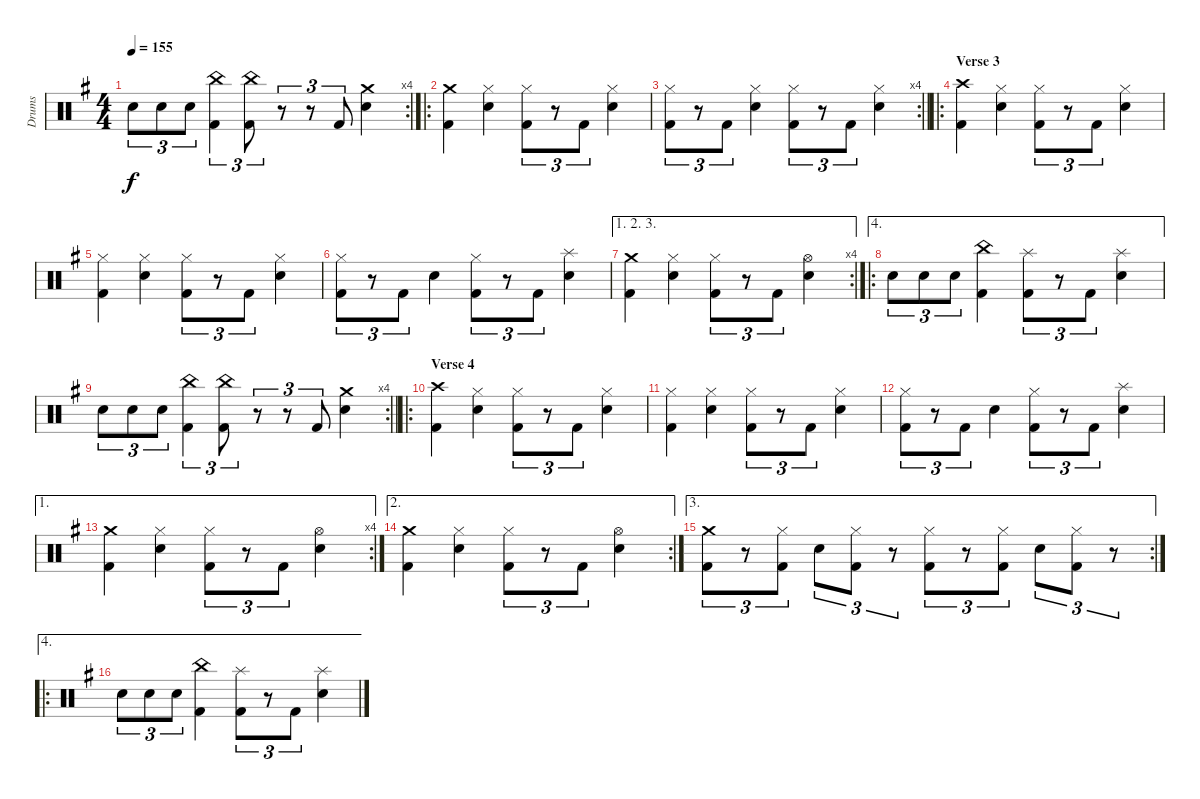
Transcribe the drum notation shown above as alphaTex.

\track ("Drums" "Drums") {instrument percussion}
\staff {score}
\articulation defaults
\rc 4
\ts (4 4)
\tempo 155
\clef neutral
\ks eminor "Electric Snare (hit)".8{tu (3 2) dy f} "Electric Snare (hit)".8{tu (3 2)} "Electric Snare (hit)".8{tu (3 2)}
("China (hit)" "Kick (hit) 2").4{tu (3 2)} ("China (hit)" "Kick (hit) 2").8{tu (3 2)} r.8{tu (3 2)} r.8{tu (3 2)} "Kick (hit) 2".8{tu (3 2)} ("Crash medium (hit)" "Electric Snare (hit)").4 |
\ro
("Crash medium (hit)" "Kick (hit) 2").4 ("Hi-Hat (closed)" "Snare (hit) 2").4 ("Hi-Hat (closed)" "Kick (hit) 2").8{tu (3 2)} r.8{tu (3 2)} "Kick (hit) 2".8{tu (3 2)} ("Hi-Hat (closed)" "Snare (hit) 2").4 |
\rc 4
\barLineRight lightlight
("Hi-Hat (closed)" "Kick (hit) 2").8{tu (3 2)} r.8{tu (3 2)} "Kick (hit) 2".8{tu (3 2)} ("Hi-Hat (closed)" "Snare (hit) 2").4 ("Hi-Hat (closed)" "Kick (hit) 2").8{tu (3 2)} r.8{tu (3 2)} "Kick (hit) 2".8{tu (3 2)} ("Hi-Hat (closed)" "Snare (hit) 2").4 |
\ro
\section ("" "Verse 3")
("Crash high (hit)" "Kick (hit) 2").4 ("Hi-Hat (closed)" "Snare (hit) 2").4 ("Hi-Hat (closed)" "Kick (hit) 2").8{tu (3 2)} r.8{tu (3 2)} "Kick (hit) 2".8{tu (3 2)} ("Hi-Hat (closed)" "Snare (hit) 2").4 |
("Hi-Hat (closed)" "Kick (hit) 2").4 ("Hi-Hat (closed)" "Snare (hit) 2").4 ("Hi-Hat (closed)" "Kick (hit) 2").8{tu (3 2)} r.8{tu (3 2)} "Kick (hit) 2".8{tu (3 2)} ("Hi-Hat (closed)" "Snare (hit) 2").4 |
("Hi-Hat (closed)" "Kick (hit) 2").8{tu (3 2)} r.8{tu (3 2)} "Kick (hit) 2".8{tu (3 2)} "Snare (hit) 2".4 ("Hi-Hat (closed)" "Kick (hit) 2").8{tu (3 2)} r.8{tu (3 2)} "Kick (hit) 2".8{tu (3 2)} ("Splash (hit)" "Snare (hit) 2").4 |
\ae (1 2 3)
\rc 4
("Crash medium (hit)" "Kick (hit) 2").4 ("Hi-Hat (closed)" "Snare (hit) 2").4 ("Hi-Hat (closed)" "Kick (hit) 2").8{tu (3 2)} r.8{tu (3 2)} "Kick (hit) 2".8{tu (3 2)} ("Hi-Hat (open)" "Snare (hit) 2").4 |
\ae 4
\ro "Electric Snare (hit)".8{tu (3 2)} "Electric Snare (hit)".8{tu (3 2)} "Electric Snare (hit)".8{tu (3 2)}
("China (hit)" "Kick (hit) 2").4 ("Splash (hit)" "Kick (hit) 2").8{tu (3 2)} r.8{tu (3 2)} "Kick (hit) 2".8{tu (3 2)} ("Splash (hit)" "Electric Snare (hit)").4 |
\rc 4
\barLineRight lightlight "Electric Snare (hit)".8{tu (3 2)} "Electric Snare (hit)".8{tu (3 2)} "Electric Snare (hit)".8{tu (3 2)}
("China (hit)" "Kick (hit) 2").4{tu (3 2)} ("China (hit)" "Kick (hit) 2").8{tu (3 2)} r.8{tu (3 2)} r.8{tu (3 2)} "Kick (hit) 2".8{tu (3 2)} ("Crash medium (hit)" "Electric Snare (hit)").4 |
\ro
\section ("" "Verse 4")
("Crash high (hit)" "Kick (hit) 2").4 ("Hi-Hat (closed)" "Snare (hit) 2").4 ("Hi-Hat (closed)" "Kick (hit) 2").8{tu (3 2)} r.8{tu (3 2)} "Kick (hit) 2".8{tu (3 2)} ("Hi-Hat (closed)" "Snare (hit) 2").4 |
("Hi-Hat (closed)" "Kick (hit) 2").4 ("Hi-Hat (closed)" "Snare (hit) 2").4 ("Hi-Hat (closed)" "Kick (hit) 2").8{tu (3 2)} r.8{tu (3 2)} "Kick (hit) 2".8{tu (3 2)} ("Hi-Hat (closed)" "Snare (hit) 2").4 |
("Hi-Hat (closed)" "Kick (hit) 2").8{tu (3 2)} r.8{tu (3 2)} "Kick (hit) 2".8{tu (3 2)} "Snare (hit) 2".4 ("Hi-Hat (closed)" "Kick (hit) 2").8{tu (3 2)} r.8{tu (3 2)} "Kick (hit) 2".8{tu (3 2)} ("Splash (hit)" "Snare (hit) 2").4 |
\ae 1
\rc 4
("Crash medium (hit)" "Kick (hit) 2").4 ("Hi-Hat (closed)" "Snare (hit) 2").4 ("Hi-Hat (closed)" "Kick (hit) 2").8{tu (3 2)} r.8{tu (3 2)} "Kick (hit) 2".8{tu (3 2)} ("Hi-Hat (open)" "Snare (hit) 2").4 |
\ae 2
\rc 2
("Crash medium (hit)" "Kick (hit) 2").4 ("Hi-Hat (closed)" "Snare (hit) 2").4 ("Hi-Hat (closed)" "Kick (hit) 2").8{tu (3 2)} r.8{tu (3 2)} "Kick (hit) 2".8{tu (3 2)} ("Hi-Hat (open)" "Snare (hit) 2").4 |
\ae 3
\rc 2
("Crash medium (hit)" "Kick (hit) 2").8{tu (3 2)} r.8{tu (3 2)} ("Hi-Hat (closed)" "Kick (hit) 2").8{tu (3 2)} "Snare (hit) 2".8{tu (3 2)} ("Hi-Hat (closed)" "Kick (hit) 2").8{tu (3 2)} r.8{tu (3 2)} ("Hi-Hat (closed)" "Kick (hit) 2").8{tu (3 2)} r.8{tu (3 2)} ("Hi-Hat (closed)" "Kick (hit) 2").8{tu (3 2)} "Snare (hit) 2".8{tu (3 2)} ("Hi-Hat (closed)" "Kick (hit) 2").8{tu (3 2)} r.8{tu (3 2)} |
\ae 4
\ro "Electric Snare (hit)".8{tu (3 2)} "Electric Snare (hit)".8{tu (3 2)} "Electric Snare (hit)".8{tu (3 2)}
("China (hit)" "Kick (hit) 2").4 ("Splash (hit)" "Kick (hit) 2").8{tu (3 2)} r.8{tu (3 2)} "Kick (hit) 2".8{tu (3 2)} ("Splash (hit)" "Electric Snare (hit)").4
